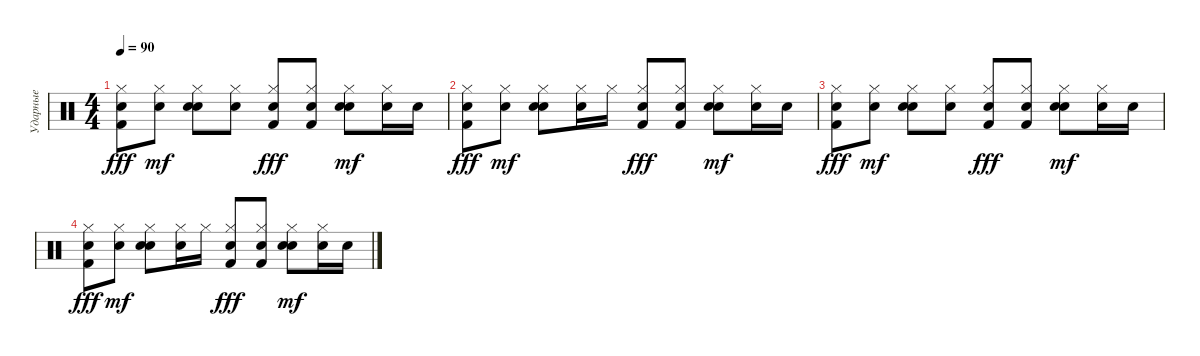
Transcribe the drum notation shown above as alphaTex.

\track ("Ударные" "Ударные") {instrument percussion}
\staff {score}
\articulation defaults
\ts (4 4)
\tempo 90
\clef neutral
\ks c
("Hand Clap (hit)" "Hi-Hat (closed)" "Kick (hit) 2").8{dy fff} ("Hand Clap (hit)" "Hi-Hat (closed)").8{dy mf} ("Hand Clap (hit)" "Hi-Hat (closed)" "Snare (hit) 2").8 ("Hand Clap (hit)" "Hi-Hat (closed)").8 ("Hand Clap (hit)" "Hi-Hat (closed)" "Kick (hit) 2").8{dy fff} ("Hand Clap (hit)" "Hi-Hat (closed)" "Kick (hit) 2").8 ("Hand Clap (hit)" "Hi-Hat (closed)" "Snare (hit) 2").8{dy mf} ("Hand Clap (hit)" "Hi-Hat (closed)").16 "Hand Clap (hit)".16 |
("Hand Clap (hit)" "Hi-Hat (closed)" "Kick (hit) 2").8{dy fff} ("Hand Clap (hit)" "Hi-Hat (closed)").8{dy mf} ("Hand Clap (hit)" "Hi-Hat (closed)" "Snare (hit) 2").8 ("Hand Clap (hit)" "Hi-Hat (closed)").16 "Hi-Hat (closed)".16 ("Hand Clap (hit)" "Hi-Hat (closed)" "Kick (hit) 2").8{dy fff} ("Hand Clap (hit)" "Hi-Hat (closed)" "Kick (hit) 2").8 ("Hand Clap (hit)" "Hi-Hat (closed)" "Snare (hit) 2").8{dy mf} ("Hand Clap (hit)" "Hi-Hat (closed)").16 "Hand Clap (hit)".16 |
("Hand Clap (hit)" "Hi-Hat (closed)" "Kick (hit) 2").8{dy fff} ("Hand Clap (hit)" "Hi-Hat (closed)").8{dy mf} ("Hand Clap (hit)" "Hi-Hat (closed)" "Snare (hit) 2").8 ("Hand Clap (hit)" "Hi-Hat (closed)").8 ("Hand Clap (hit)" "Hi-Hat (closed)" "Kick (hit) 2").8{dy fff} ("Hand Clap (hit)" "Hi-Hat (closed)" "Kick (hit) 2").8 ("Hand Clap (hit)" "Hi-Hat (closed)" "Snare (hit) 2").8{dy mf} ("Hand Clap (hit)" "Hi-Hat (closed)").16 "Hand Clap (hit)".16 |
("Hand Clap (hit)" "Hi-Hat (closed)" "Kick (hit) 2").8{dy fff} ("Hand Clap (hit)" "Hi-Hat (closed)").8{dy mf} ("Hand Clap (hit)" "Hi-Hat (closed)" "Snare (hit) 2").8 ("Hand Clap (hit)" "Hi-Hat (closed)").16 "Hi-Hat (closed)".16 ("Hand Clap (hit)" "Hi-Hat (closed)" "Kick (hit) 2").8{dy fff} ("Hand Clap (hit)" "Hi-Hat (closed)" "Kick (hit) 2").8 ("Hand Clap (hit)" "Hi-Hat (closed)" "Snare (hit) 2").8{dy mf} ("Hand Clap (hit)" "Hi-Hat (closed)").16 "Hand Clap (hit)".16
